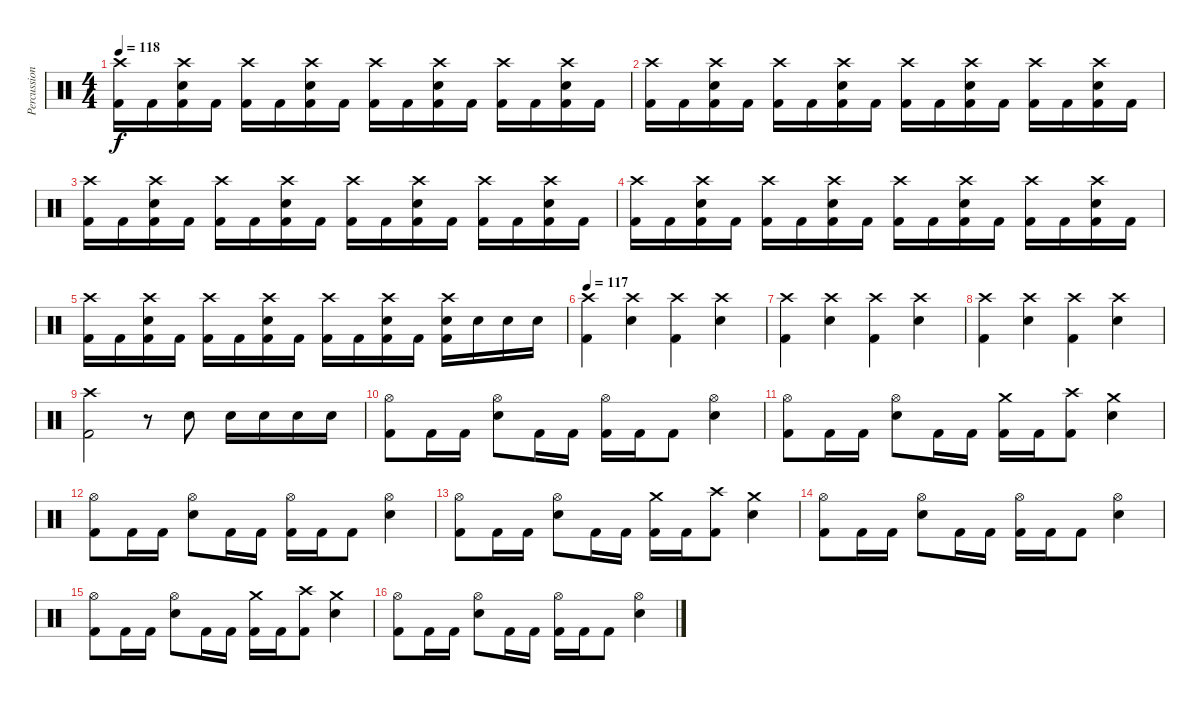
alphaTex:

\track ("Percussions" "Percussion") {instrument percussion}
\staff {score}
\articulation defaults
\ts (4 4)
\tempo 118
\clef neutral
\ks c
("Crash high (hit)" "Kick (hit) 2").16{dy f} "Kick (hit) 2".16 ("Crash high (hit)" "Snare (hit) 2" "Kick (hit) 2").16 "Kick (hit) 2".16 ("Crash high (hit)" "Kick (hit) 2").16 "Kick (hit) 2".16 ("Crash high (hit)" "Snare (hit) 2" "Kick (hit) 2").16 "Kick (hit) 2".16 ("Crash high (hit)" "Kick (hit) 2").16 "Kick (hit) 2".16 ("Crash high (hit)" "Snare (hit) 2" "Kick (hit) 2").16 "Kick (hit) 2".16 ("Crash high (hit)" "Kick (hit) 2").16 "Kick (hit) 2".16 ("Crash high (hit)" "Snare (hit) 2" "Kick (hit) 2").16 "Kick (hit) 2".16 |
("Crash high (hit)" "Kick (hit) 2").16 "Kick (hit) 2".16 ("Crash high (hit)" "Snare (hit) 2" "Kick (hit) 2").16 "Kick (hit) 2".16 ("Crash high (hit)" "Kick (hit) 2").16 "Kick (hit) 2".16 ("Crash high (hit)" "Snare (hit) 2" "Kick (hit) 2").16 "Kick (hit) 2".16 ("Crash high (hit)" "Kick (hit) 2").16 "Kick (hit) 2".16 ("Crash high (hit)" "Snare (hit) 2" "Kick (hit) 2").16 "Kick (hit) 2".16 ("Crash high (hit)" "Kick (hit) 2").16 "Kick (hit) 2".16 ("Crash high (hit)" "Snare (hit) 2" "Kick (hit) 2").16 "Kick (hit) 2".16 |
("Crash high (hit)" "Kick (hit) 2").16 "Kick (hit) 2".16 ("Crash high (hit)" "Snare (hit) 2" "Kick (hit) 2").16 "Kick (hit) 2".16 ("Crash high (hit)" "Kick (hit) 2").16 "Kick (hit) 2".16 ("Crash high (hit)" "Snare (hit) 2" "Kick (hit) 2").16 "Kick (hit) 2".16 ("Crash high (hit)" "Kick (hit) 2").16 "Kick (hit) 2".16 ("Crash high (hit)" "Snare (hit) 2" "Kick (hit) 2").16 "Kick (hit) 2".16 ("Crash high (hit)" "Kick (hit) 2").16 "Kick (hit) 2".16 ("Crash high (hit)" "Snare (hit) 2" "Kick (hit) 2").16 "Kick (hit) 2".16 |
("Crash high (hit)" "Kick (hit) 2").16 "Kick (hit) 2".16 ("Crash high (hit)" "Snare (hit) 2" "Kick (hit) 2").16 "Kick (hit) 2".16 ("Crash high (hit)" "Kick (hit) 2").16 "Kick (hit) 2".16 ("Crash high (hit)" "Snare (hit) 2" "Kick (hit) 2").16 "Kick (hit) 2".16 ("Crash high (hit)" "Kick (hit) 2").16 "Kick (hit) 2".16 ("Crash high (hit)" "Snare (hit) 2" "Kick (hit) 2").16 "Kick (hit) 2".16 ("Crash high (hit)" "Kick (hit) 2").16 "Kick (hit) 2".16 ("Crash high (hit)" "Snare (hit) 2" "Kick (hit) 2").16 "Kick (hit) 2".16 |
("Crash high (hit)" "Kick (hit) 2").16 "Kick (hit) 2".16 ("Crash high (hit)" "Snare (hit) 2" "Kick (hit) 2").16 "Kick (hit) 2".16 ("Crash high (hit)" "Kick (hit) 2").16 "Kick (hit) 2".16 ("Crash high (hit)" "Snare (hit) 2" "Kick (hit) 2").16 "Kick (hit) 2".16 ("Crash high (hit)" "Kick (hit) 2").16 "Kick (hit) 2".16 ("Crash high (hit)" "Snare (hit) 2" "Kick (hit) 2").16 "Kick (hit) 2".16 ("Crash high (hit)" "Snare (hit) 2" "Kick (hit) 2").16 "Snare (hit) 2".16 "Snare (hit) 2".16 "Snare (hit) 2".16 |
\tempo 117
("Crash high (hit)" "Kick (hit) 2").4 ("Crash high (hit)" "Snare (hit) 2").4 ("Crash high (hit)" "Kick (hit) 2").4 ("Crash high (hit)" "Snare (hit) 2").4 |
("Crash high (hit)" "Kick (hit) 2").4 ("Crash high (hit)" "Snare (hit) 2").4 ("Crash high (hit)" "Kick (hit) 2").4 ("Crash high (hit)" "Snare (hit) 2").4 |
("Crash high (hit)" "Kick (hit) 2").4 ("Crash high (hit)" "Snare (hit) 2").4 ("Crash high (hit)" "Kick (hit) 2").4 ("Crash high (hit)" "Snare (hit) 2").4 |
("Crash high (hit)" "Kick (hit) 2").2 r.8 "Snare (hit) 2".8 "Snare (hit) 2".16 "Snare (hit) 2".16 "Snare (hit) 2".16 "Snare (hit) 2".16 |
("Hi-Hat (open)" "Kick (hit) 2").8 "Kick (hit) 2".16 "Kick (hit) 2".16 ("Hi-Hat (open)" "Snare (hit) 2").8 "Kick (hit) 2".16 "Kick (hit) 2".16 ("Hi-Hat (open)" "Kick (hit) 2").16 "Kick (hit) 2".16 "Kick (hit) 2".8 ("Hi-Hat (open)" "Snare (hit) 2").4 |
("Hi-Hat (open)" "Kick (hit) 2").8 "Kick (hit) 2".16 "Kick (hit) 2".16 ("Hi-Hat (open)" "Snare (hit) 2").8 "Kick (hit) 2".16 "Kick (hit) 2".16 ("Crash medium (hit)" "Kick (hit) 2").16 "Kick (hit) 2".16 ("Crash high (hit)" "Kick (hit) 2").8 ("Crash medium (hit)" "Snare (hit) 2").4 |
("Hi-Hat (open)" "Kick (hit) 2").8 "Kick (hit) 2".16 "Kick (hit) 2".16 ("Hi-Hat (open)" "Snare (hit) 2").8 "Kick (hit) 2".16 "Kick (hit) 2".16 ("Hi-Hat (open)" "Kick (hit) 2").16 "Kick (hit) 2".16 "Kick (hit) 2".8 ("Hi-Hat (open)" "Snare (hit) 2").4 |
("Hi-Hat (open)" "Kick (hit) 2").8 "Kick (hit) 2".16 "Kick (hit) 2".16 ("Hi-Hat (open)" "Snare (hit) 2").8 "Kick (hit) 2".16 "Kick (hit) 2".16 ("Crash medium (hit)" "Kick (hit) 2").16 "Kick (hit) 2".16 ("Crash high (hit)" "Kick (hit) 2").8 ("Crash medium (hit)" "Snare (hit) 2").4 |
("Hi-Hat (open)" "Kick (hit) 2").8 "Kick (hit) 2".16 "Kick (hit) 2".16 ("Hi-Hat (open)" "Snare (hit) 2").8 "Kick (hit) 2".16 "Kick (hit) 2".16 ("Hi-Hat (open)" "Kick (hit) 2").16 "Kick (hit) 2".16 "Kick (hit) 2".8 ("Hi-Hat (open)" "Snare (hit) 2").4 |
("Hi-Hat (open)" "Kick (hit) 2").8 "Kick (hit) 2".16 "Kick (hit) 2".16 ("Hi-Hat (open)" "Snare (hit) 2").8 "Kick (hit) 2".16 "Kick (hit) 2".16 ("Crash medium (hit)" "Kick (hit) 2").16 "Kick (hit) 2".16 ("Crash high (hit)" "Kick (hit) 2").8 ("Crash medium (hit)" "Snare (hit) 2").4 |
("Hi-Hat (open)" "Kick (hit) 2").8 "Kick (hit) 2".16 "Kick (hit) 2".16 ("Hi-Hat (open)" "Snare (hit) 2").8 "Kick (hit) 2".16 "Kick (hit) 2".16 ("Hi-Hat (open)" "Kick (hit) 2").16 "Kick (hit) 2".16 "Kick (hit) 2".8 ("Hi-Hat (open)" "Snare (hit) 2").4
